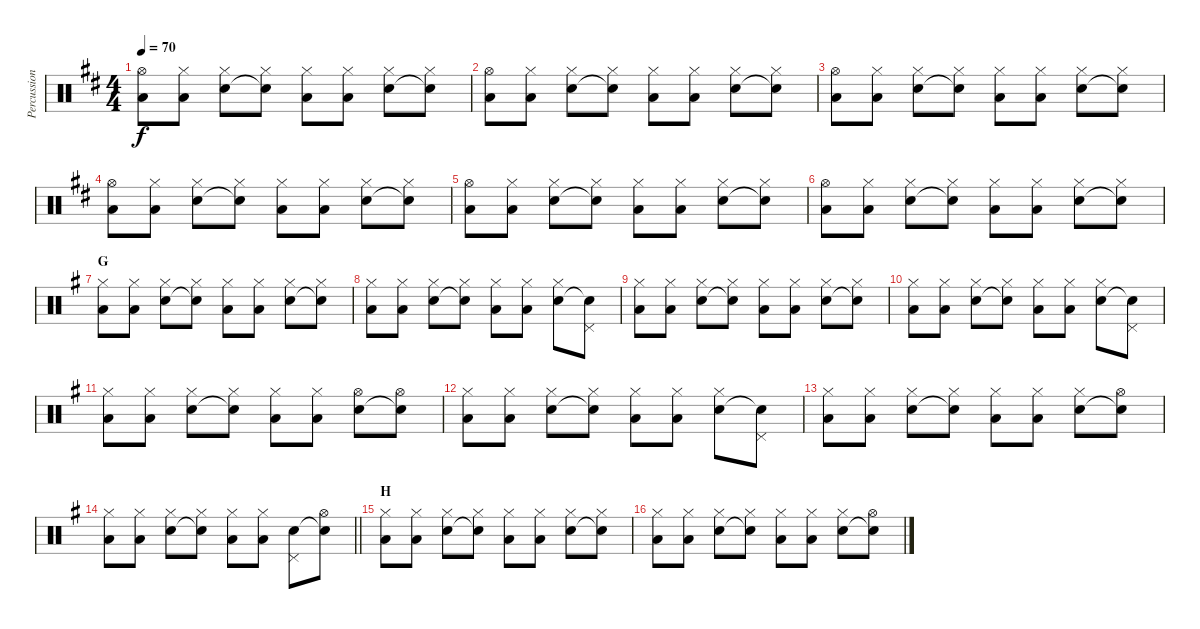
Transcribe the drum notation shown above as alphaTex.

\track ("Percussions" "Percussion") {instrument percussion}
\staff {score}
\articulation defaults
\ts (4 4)
\tempo 70
\clef neutral
\ks d
("Hi-Hat (open)" "Low Floor Tom (hit)").8{dy f} ("Hi-Hat (closed)" "Low Floor Tom (hit)").8 ("Hi-Hat (closed)" "Electric Snare (hit)").8 ("Hi-Hat (closed)" "Snare (hit)"{t}).8 ("Hi-Hat (closed)" "Low Floor Tom (hit)").8 ("Hi-Hat (closed)" "Low Floor Tom (hit)").8 ("Hi-Hat (closed)" "Electric Snare (hit)").8 ("Hi-Hat (closed)" "Snare (hit)"{t}).8 |
("Hi-Hat (open)" "Low Floor Tom (hit)").8 ("Hi-Hat (closed)" "Low Floor Tom (hit)").8 ("Hi-Hat (closed)" "Electric Snare (hit)").8 ("Hi-Hat (closed)" "Snare (hit)"{t}).8 ("Hi-Hat (closed)" "Low Floor Tom (hit)").8 ("Hi-Hat (closed)" "Low Floor Tom (hit)").8 ("Hi-Hat (closed)" "Electric Snare (hit)").8 ("Hi-Hat (closed)" "Snare (hit)"{t}).8 |
("Hi-Hat (open)" "Low Floor Tom (hit)").8 ("Hi-Hat (closed)" "Low Floor Tom (hit)").8 ("Hi-Hat (closed)" "Electric Snare (hit)").8 ("Hi-Hat (closed)" "Snare (hit)"{t}).8 ("Hi-Hat (closed)" "Low Floor Tom (hit)").8 ("Hi-Hat (closed)" "Low Floor Tom (hit)").8 ("Hi-Hat (closed)" "Electric Snare (hit)").8 ("Hi-Hat (closed)" "Snare (hit)"{t}).8 |
("Hi-Hat (open)" "Low Floor Tom (hit)").8 ("Hi-Hat (closed)" "Low Floor Tom (hit)").8 ("Hi-Hat (closed)" "Electric Snare (hit)").8 ("Hi-Hat (closed)" "Snare (hit)"{t}).8 ("Hi-Hat (closed)" "Low Floor Tom (hit)").8 ("Hi-Hat (closed)" "Low Floor Tom (hit)").8 ("Hi-Hat (closed)" "Electric Snare (hit)").8 ("Hi-Hat (closed)" "Snare (hit)"{t}).8 |
("Hi-Hat (open)" "Low Floor Tom (hit)").8 ("Hi-Hat (closed)" "Low Floor Tom (hit)").8 ("Hi-Hat (closed)" "Electric Snare (hit)").8 ("Hi-Hat (closed)" "Snare (hit)"{t}).8 ("Hi-Hat (closed)" "Low Floor Tom (hit)").8 ("Hi-Hat (closed)" "Low Floor Tom (hit)").8 ("Hi-Hat (closed)" "Electric Snare (hit)").8 ("Hi-Hat (closed)" "Snare (hit)"{t}).8 |
("Hi-Hat (open)" "Low Floor Tom (hit)").8 ("Hi-Hat (closed)" "Low Floor Tom (hit)").8 ("Hi-Hat (closed)" "Electric Snare (hit)").8 ("Hi-Hat (closed)" "Snare (hit)"{t}).8 ("Hi-Hat (closed)" "Low Floor Tom (hit)").8 ("Hi-Hat (closed)" "Low Floor Tom (hit)").8 ("Hi-Hat (closed)" "Electric Snare (hit)").8 ("Hi-Hat (closed)" "Snare (hit)"{t}).8 |
\section ("" "G")
\ks g
("Hi-Hat (closed)" "Low Floor Tom (hit)").8 ("Hi-Hat (closed)" "Low Floor Tom (hit)").8 ("Hi-Hat (closed)" "Electric Snare (hit)").8 ("Hi-Hat (closed)" "Snare (hit)"{t}).8 ("Hi-Hat (closed)" "Low Floor Tom (hit)").8 ("Hi-Hat (closed)" "Low Floor Tom (hit)").8 ("Hi-Hat (closed)" "Electric Snare (hit)").8 ("Hi-Hat (closed)" "Snare (hit)"{t}).8 |
("Hi-Hat (closed)" "Low Floor Tom (hit)").8 ("Hi-Hat (closed)" "Low Floor Tom (hit)").8 ("Hi-Hat (closed)" "Electric Snare (hit)").8 ("Hi-Hat (closed)" "Snare (hit)"{t}).8 ("Hi-Hat (closed)" "Low Floor Tom (hit)").8 ("Hi-Hat (closed)" "Low Floor Tom (hit)").8 ("Hi-Hat (closed)" "Electric Snare (hit)").8 ("Pedal Hi-Hat (hit)" "Snare (hit)"{t}).8 |
("Hi-Hat (closed)" "Low Floor Tom (hit)").8 ("Hi-Hat (closed)" "Low Floor Tom (hit)").8 ("Hi-Hat (closed)" "Electric Snare (hit)").8 ("Hi-Hat (closed)" "Snare (hit)"{t}).8 ("Hi-Hat (closed)" "Low Floor Tom (hit)").8 ("Hi-Hat (closed)" "Low Floor Tom (hit)").8 ("Hi-Hat (closed)" "Electric Snare (hit)").8 ("Hi-Hat (closed)" "Snare (hit)"{t}).8 |
("Hi-Hat (closed)" "Low Floor Tom (hit)").8 ("Hi-Hat (closed)" "Low Floor Tom (hit)").8 ("Hi-Hat (closed)" "Electric Snare (hit)").8 ("Hi-Hat (closed)" "Snare (hit)"{t}).8 ("Hi-Hat (closed)" "Low Floor Tom (hit)").8 ("Hi-Hat (closed)" "Low Floor Tom (hit)").8 ("Hi-Hat (closed)" "Electric Snare (hit)").8 ("Pedal Hi-Hat (hit)" "Snare (hit)"{t}).8 |
("Hi-Hat (closed)" "Low Floor Tom (hit)").8 ("Hi-Hat (closed)" "Low Floor Tom (hit)").8 ("Hi-Hat (closed)" "Electric Snare (hit)").8 ("Hi-Hat (closed)" "Snare (hit)"{t}).8 ("Hi-Hat (closed)" "Low Floor Tom (hit)").8 ("Hi-Hat (closed)" "Low Floor Tom (hit)").8 ("Hi-Hat (open)" "Electric Snare (hit)").8 ("Hi-Hat (open)" "Snare (hit)"{t}).8 |
("Hi-Hat (closed)" "Low Floor Tom (hit)").8 ("Hi-Hat (closed)" "Low Floor Tom (hit)").8 ("Hi-Hat (closed)" "Electric Snare (hit)").8 ("Hi-Hat (closed)" "Snare (hit)"{t}).8 ("Hi-Hat (closed)" "Low Floor Tom (hit)").8 ("Hi-Hat (closed)" "Low Floor Tom (hit)").8 ("Hi-Hat (closed)" "Electric Snare (hit)").8 ("Pedal Hi-Hat (hit)" "Snare (hit)"{t}).8 |
("Hi-Hat (closed)" "Low Floor Tom (hit)").8 ("Hi-Hat (closed)" "Low Floor Tom (hit)").8 ("Hi-Hat (closed)" "Electric Snare (hit)").8 ("Hi-Hat (closed)" "Snare (hit)"{t}).8 ("Hi-Hat (closed)" "Low Floor Tom (hit)").8 ("Hi-Hat (closed)" "Low Floor Tom (hit)").8 ("Hi-Hat (closed)" "Electric Snare (hit)").8 ("Hi-Hat (open)" "Snare (hit)"{t}).8 |
\barLineRight lightlight
("Hi-Hat (closed)" "Low Floor Tom (hit)").8 ("Hi-Hat (closed)" "Low Floor Tom (hit)").8 ("Hi-Hat (closed)" "Electric Snare (hit)").8 ("Hi-Hat (closed)" "Snare (hit)"{t}).8 ("Hi-Hat (closed)" "Low Floor Tom (hit)").8 ("Hi-Hat (closed)" "Low Floor Tom (hit)").8 ("Pedal Hi-Hat (hit)" "Electric Snare (hit)").8 ("Hi-Hat (open)" "Snare (hit)"{t}).8 |
\section ("" "H")
("Hi-Hat (closed)" "Low Floor Tom (hit)").8 ("Hi-Hat (closed)" "Low Floor Tom (hit)").8 ("Hi-Hat (closed)" "Electric Snare (hit)").8 ("Hi-Hat (closed)" "Snare (hit)"{t}).8 ("Hi-Hat (closed)" "Low Floor Tom (hit)").8 ("Hi-Hat (closed)" "Low Floor Tom (hit)").8 ("Hi-Hat (closed)" "Electric Snare (hit)").8 ("Hi-Hat (closed)" "Snare (hit)"{t}).8 |
("Hi-Hat (closed)" "Low Floor Tom (hit)").8 ("Hi-Hat (closed)" "Low Floor Tom (hit)").8 ("Hi-Hat (closed)" "Electric Snare (hit)").8 ("Hi-Hat (closed)" "Snare (hit)"{t}).8 ("Hi-Hat (closed)" "Low Floor Tom (hit)").8 ("Hi-Hat (closed)" "Low Floor Tom (hit)").8 ("Hi-Hat (closed)" "Electric Snare (hit)").8 ("Hi-Hat (open)" "Snare (hit)"{t}).8
